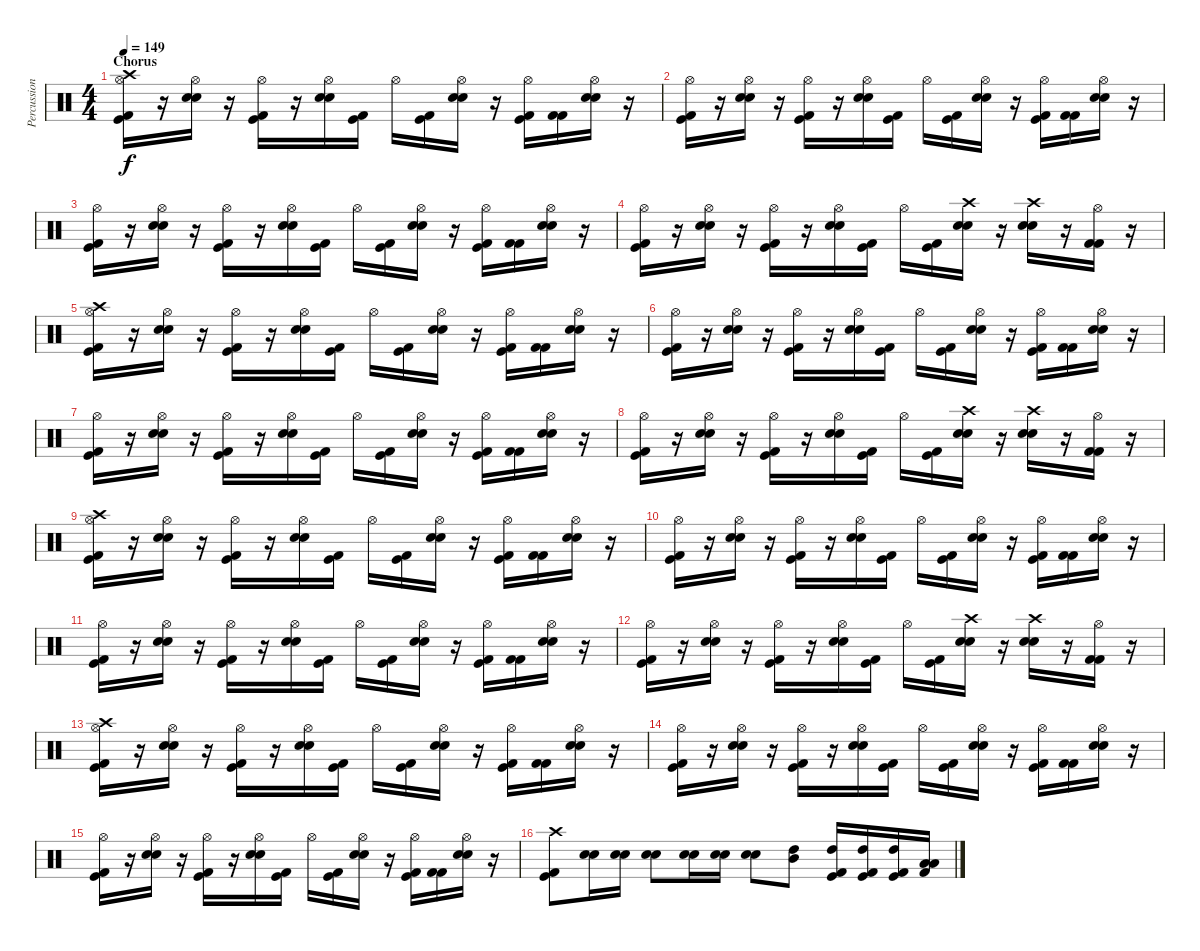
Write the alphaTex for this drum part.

\track ("Percussioni" "Percussion") {instrument percussion}
\staff {score}
\articulation defaults
\ts (4 4)
\section ("" "Chorus")
\tempo 149
\clef neutral
\ks c
("Hi-Hat (open)" "Crash high (hit)" "Kick (hit) 2" "Kick (hit)").16{dy f} r.16 ("Hi-Hat (open)" "Snare (hit) 2" "Snare (hit) 2").16 r.16 ("Hi-Hat (open)" "Kick (hit)" "Kick (hit) 2").16 r.16 ("Hi-Hat (open)" "Snare (hit) 2" "Snare (hit) 2").16 ("Kick (hit)" "Kick (hit) 2").16 "Hi-Hat (open)".16 ("Kick (hit) 2" "Kick (hit)").16 ("Hi-Hat (open)" "Snare (hit) 2" "Snare (hit) 2").16 r.16 ("Hi-Hat (open)" "Kick (hit)" "Kick (hit) 2").16 ("Kick (hit) 2" "Kick (hit) 2").16 ("Hi-Hat (open)" "Snare (hit) 2" "Snare (hit) 2").16 r.16 |
("Hi-Hat (open)" "Kick (hit) 2" "Kick (hit)").16 r.16 ("Hi-Hat (open)" "Snare (hit) 2" "Snare (hit) 2").16 r.16 ("Hi-Hat (open)" "Kick (hit)" "Kick (hit) 2").16 r.16 ("Hi-Hat (open)" "Snare (hit) 2" "Snare (hit) 2").16 ("Kick (hit)" "Kick (hit) 2").16 "Hi-Hat (open)".16 ("Kick (hit) 2" "Kick (hit)").16 ("Hi-Hat (open)" "Snare (hit) 2" "Snare (hit) 2").16 r.16 ("Hi-Hat (open)" "Kick (hit)" "Kick (hit) 2").16 ("Kick (hit) 2" "Kick (hit) 2").16 ("Hi-Hat (open)" "Snare (hit) 2" "Snare (hit) 2").16 r.16 |
("Hi-Hat (open)" "Kick (hit) 2" "Kick (hit)").16 r.16 ("Hi-Hat (open)" "Snare (hit) 2" "Snare (hit) 2").16 r.16 ("Hi-Hat (open)" "Kick (hit)" "Kick (hit) 2").16 r.16 ("Hi-Hat (open)" "Snare (hit) 2" "Snare (hit) 2").16 ("Kick (hit)" "Kick (hit) 2").16 "Hi-Hat (open)".16 ("Kick (hit) 2" "Kick (hit)").16 ("Hi-Hat (open)" "Snare (hit) 2" "Snare (hit) 2").16 r.16 ("Hi-Hat (open)" "Kick (hit)" "Kick (hit) 2").16 ("Kick (hit) 2" "Kick (hit) 2").16 ("Hi-Hat (open)" "Snare (hit) 2" "Snare (hit) 2").16 r.16 |
("Hi-Hat (open)" "Kick (hit) 2" "Kick (hit)").16 r.16 ("Hi-Hat (open)" "Snare (hit) 2" "Snare (hit) 2").16 r.16 ("Hi-Hat (open)" "Kick (hit)" "Kick (hit) 2").16 r.16 ("Hi-Hat (open)" "Snare (hit) 2" "Snare (hit) 2").16 ("Kick (hit)" "Kick (hit) 2").16 "Hi-Hat (open)".16 ("Kick (hit) 2" "Kick (hit)").16 ("Crash high (hit)" "Snare (hit) 2" "Snare (hit) 2").16 r.16 ("Crash high (hit)" "Snare (hit) 2" "Snare (hit) 2").16 r.16 ("Hi-Hat (open)" "Kick (hit) 2" "Kick (hit) 2").16 r.16 |
("Hi-Hat (open)" "Crash high (hit)" "Kick (hit) 2" "Kick (hit)").16 r.16 ("Hi-Hat (open)" "Snare (hit) 2" "Snare (hit) 2").16 r.16 ("Hi-Hat (open)" "Kick (hit)" "Kick (hit) 2").16 r.16 ("Hi-Hat (open)" "Snare (hit) 2" "Snare (hit) 2").16 ("Kick (hit)" "Kick (hit) 2").16 "Hi-Hat (open)".16 ("Kick (hit) 2" "Kick (hit)").16 ("Hi-Hat (open)" "Snare (hit) 2" "Snare (hit) 2").16 r.16 ("Hi-Hat (open)" "Kick (hit)" "Kick (hit) 2").16 ("Kick (hit) 2" "Kick (hit) 2").16 ("Hi-Hat (open)" "Snare (hit) 2" "Snare (hit) 2").16 r.16 |
("Hi-Hat (open)" "Kick (hit) 2" "Kick (hit)").16 r.16 ("Hi-Hat (open)" "Snare (hit) 2" "Snare (hit) 2").16 r.16 ("Hi-Hat (open)" "Kick (hit)" "Kick (hit) 2").16 r.16 ("Hi-Hat (open)" "Snare (hit) 2" "Snare (hit) 2").16 ("Kick (hit)" "Kick (hit) 2").16 "Hi-Hat (open)".16 ("Kick (hit) 2" "Kick (hit)").16 ("Hi-Hat (open)" "Snare (hit) 2" "Snare (hit) 2").16 r.16 ("Hi-Hat (open)" "Kick (hit)" "Kick (hit) 2").16 ("Kick (hit) 2" "Kick (hit) 2").16 ("Hi-Hat (open)" "Snare (hit) 2" "Snare (hit) 2").16 r.16 |
("Hi-Hat (open)" "Kick (hit) 2" "Kick (hit)").16 r.16 ("Hi-Hat (open)" "Snare (hit) 2" "Snare (hit) 2").16 r.16 ("Hi-Hat (open)" "Kick (hit)" "Kick (hit) 2").16 r.16 ("Hi-Hat (open)" "Snare (hit) 2" "Snare (hit) 2").16 ("Kick (hit)" "Kick (hit) 2").16 "Hi-Hat (open)".16 ("Kick (hit) 2" "Kick (hit)").16 ("Hi-Hat (open)" "Snare (hit) 2" "Snare (hit) 2").16 r.16 ("Hi-Hat (open)" "Kick (hit)" "Kick (hit) 2").16 ("Kick (hit) 2" "Kick (hit) 2").16 ("Hi-Hat (open)" "Snare (hit) 2" "Snare (hit) 2").16 r.16 |
("Hi-Hat (open)" "Kick (hit) 2" "Kick (hit)").16 r.16 ("Hi-Hat (open)" "Snare (hit) 2" "Snare (hit) 2").16 r.16 ("Hi-Hat (open)" "Kick (hit)" "Kick (hit) 2").16 r.16 ("Hi-Hat (open)" "Snare (hit) 2" "Snare (hit) 2").16 ("Kick (hit)" "Kick (hit) 2").16 "Hi-Hat (open)".16 ("Kick (hit) 2" "Kick (hit)").16 ("Crash high (hit)" "Snare (hit) 2" "Snare (hit) 2").16 r.16 ("Crash high (hit)" "Snare (hit) 2" "Snare (hit) 2").16 r.16 ("Hi-Hat (open)" "Kick (hit) 2" "Kick (hit) 2").16 r.16 |
("Hi-Hat (open)" "Crash high (hit)" "Kick (hit) 2" "Kick (hit)").16 r.16 ("Hi-Hat (open)" "Snare (hit) 2" "Snare (hit) 2").16 r.16 ("Hi-Hat (open)" "Kick (hit)" "Kick (hit) 2").16 r.16 ("Hi-Hat (open)" "Snare (hit) 2" "Snare (hit) 2").16 ("Kick (hit)" "Kick (hit) 2").16 "Hi-Hat (open)".16 ("Kick (hit) 2" "Kick (hit)").16 ("Hi-Hat (open)" "Snare (hit) 2" "Snare (hit) 2").16 r.16 ("Hi-Hat (open)" "Kick (hit)" "Kick (hit) 2").16 ("Kick (hit) 2" "Kick (hit) 2").16 ("Hi-Hat (open)" "Snare (hit) 2" "Snare (hit) 2").16 r.16 |
("Hi-Hat (open)" "Kick (hit) 2" "Kick (hit)").16 r.16 ("Hi-Hat (open)" "Snare (hit) 2" "Snare (hit) 2").16 r.16 ("Hi-Hat (open)" "Kick (hit)" "Kick (hit) 2").16 r.16 ("Hi-Hat (open)" "Snare (hit) 2" "Snare (hit) 2").16 ("Kick (hit)" "Kick (hit) 2").16 "Hi-Hat (open)".16 ("Kick (hit) 2" "Kick (hit)").16 ("Hi-Hat (open)" "Snare (hit) 2" "Snare (hit) 2").16 r.16 ("Hi-Hat (open)" "Kick (hit)" "Kick (hit) 2").16 ("Kick (hit) 2" "Kick (hit) 2").16 ("Hi-Hat (open)" "Snare (hit) 2" "Snare (hit) 2").16 r.16 |
("Hi-Hat (open)" "Kick (hit) 2" "Kick (hit)").16 r.16 ("Hi-Hat (open)" "Snare (hit) 2" "Snare (hit) 2").16 r.16 ("Hi-Hat (open)" "Kick (hit)" "Kick (hit) 2").16 r.16 ("Hi-Hat (open)" "Snare (hit) 2" "Snare (hit) 2").16 ("Kick (hit)" "Kick (hit) 2").16 "Hi-Hat (open)".16 ("Kick (hit) 2" "Kick (hit)").16 ("Hi-Hat (open)" "Snare (hit) 2" "Snare (hit) 2").16 r.16 ("Hi-Hat (open)" "Kick (hit)" "Kick (hit) 2").16 ("Kick (hit) 2" "Kick (hit) 2").16 ("Hi-Hat (open)" "Snare (hit) 2" "Snare (hit) 2").16 r.16 |
("Hi-Hat (open)" "Kick (hit) 2" "Kick (hit)").16 r.16 ("Hi-Hat (open)" "Snare (hit) 2" "Snare (hit) 2").16 r.16 ("Hi-Hat (open)" "Kick (hit)" "Kick (hit) 2").16 r.16 ("Hi-Hat (open)" "Snare (hit) 2" "Snare (hit) 2").16 ("Kick (hit)" "Kick (hit) 2").16 "Hi-Hat (open)".16 ("Kick (hit) 2" "Kick (hit)").16 ("Crash high (hit)" "Snare (hit) 2" "Snare (hit) 2").16 r.16 ("Crash high (hit)" "Snare (hit) 2" "Snare (hit) 2").16 r.16 ("Hi-Hat (open)" "Kick (hit) 2" "Kick (hit) 2").16 r.16 |
("Hi-Hat (open)" "Crash high (hit)" "Kick (hit) 2" "Kick (hit)").16 r.16 ("Hi-Hat (open)" "Snare (hit) 2" "Snare (hit) 2").16 r.16 ("Hi-Hat (open)" "Kick (hit)" "Kick (hit) 2").16 r.16 ("Hi-Hat (open)" "Snare (hit) 2" "Snare (hit) 2").16 ("Kick (hit)" "Kick (hit) 2").16 "Hi-Hat (open)".16 ("Kick (hit) 2" "Kick (hit)").16 ("Hi-Hat (open)" "Snare (hit) 2" "Snare (hit) 2").16 r.16 ("Hi-Hat (open)" "Kick (hit)" "Kick (hit) 2").16 ("Kick (hit) 2" "Kick (hit) 2").16 ("Hi-Hat (open)" "Snare (hit) 2" "Snare (hit) 2").16 r.16 |
("Hi-Hat (open)" "Kick (hit) 2" "Kick (hit)").16 r.16 ("Hi-Hat (open)" "Snare (hit) 2" "Snare (hit) 2").16 r.16 ("Hi-Hat (open)" "Kick (hit)" "Kick (hit) 2").16 r.16 ("Hi-Hat (open)" "Snare (hit) 2" "Snare (hit) 2").16 ("Kick (hit)" "Kick (hit) 2").16 "Hi-Hat (open)".16 ("Kick (hit) 2" "Kick (hit)").16 ("Hi-Hat (open)" "Snare (hit) 2" "Snare (hit) 2").16 r.16 ("Hi-Hat (open)" "Kick (hit)" "Kick (hit) 2").16 ("Kick (hit) 2" "Kick (hit) 2").16 ("Hi-Hat (open)" "Snare (hit) 2" "Snare (hit) 2").16 r.16 |
("Hi-Hat (open)" "Kick (hit) 2" "Kick (hit)").16 r.16 ("Hi-Hat (open)" "Snare (hit) 2" "Snare (hit) 2").16 r.16 ("Hi-Hat (open)" "Kick (hit)" "Kick (hit) 2").16 r.16 ("Hi-Hat (open)" "Snare (hit) 2" "Snare (hit) 2").16 ("Kick (hit)" "Kick (hit) 2").16 "Hi-Hat (open)".16 ("Kick (hit) 2" "Kick (hit)").16 ("Hi-Hat (open)" "Snare (hit) 2" "Snare (hit) 2").16 r.16 ("Hi-Hat (open)" "Kick (hit)" "Kick (hit) 2").16 ("Kick (hit) 2" "Kick (hit) 2").16 ("Hi-Hat (open)" "Snare (hit) 2" "Snare (hit) 2").16 r.16 |
("Crash high (hit)" "Kick (hit) 2" "Kick (hit)").8 ("Snare (hit) 2" "Snare (hit) 2").16 ("Snare (hit) 2" "Snare (hit) 2").16 ("Snare (hit) 2" "Snare (hit) 2").8 ("Snare (hit) 2" "Snare (hit) 2").16 ("Snare (hit) 2" "Snare (hit) 2").16 ("Snare (hit) 2" "Snare (hit) 2").8 ("Mid Tom (hit)" "High Tom (hit)").8 ("High Tom (hit)" "Kick (hit)" "Kick (hit) 2").16 ("High Tom (hit)" "Kick (hit)" "Kick (hit) 2").16 ("High Tom (hit)" "Kick (hit)" "Kick (hit) 2").16 ("Low Tom (hit)" "Low Tom (hit)" "Kick (hit) 2").16
